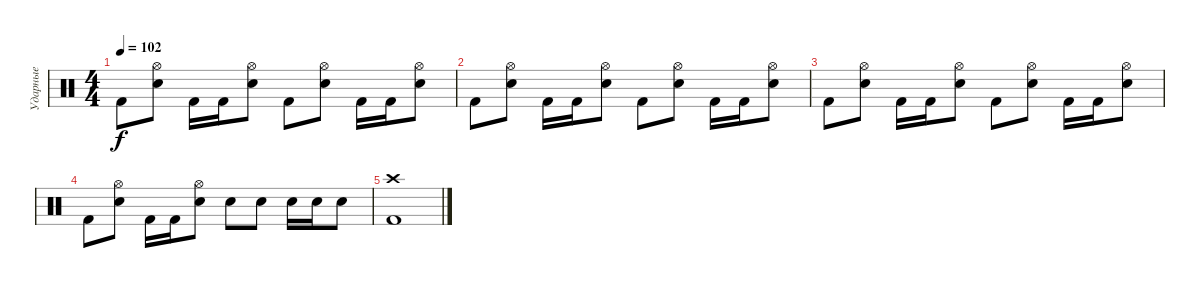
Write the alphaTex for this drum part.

\track ("Ударные" "Ударные") {instrument percussion}
\staff {score}
\articulation defaults
\ts (4 4)
\tempo 102
\clef neutral
\ks c "Kick (hit) 2".8{dy f}
("Electric Snare (hit)" "Hi-Hat (open)").8 "Kick (hit) 2".16 "Kick (hit) 2".16 ("Electric Snare (hit)" "Hi-Hat (open)").8 "Kick (hit) 2".8 ("Electric Snare (hit)" "Hi-Hat (open)").8 "Kick (hit) 2".16 "Kick (hit) 2".16 ("Electric Snare (hit)" "Hi-Hat (open)").8 |
"Kick (hit) 2".8 ("Electric Snare (hit)" "Hi-Hat (open)").8 "Kick (hit) 2".16 "Kick (hit) 2".16 ("Electric Snare (hit)" "Hi-Hat (open)").8 "Kick (hit) 2".8 ("Electric Snare (hit)" "Hi-Hat (open)").8 "Kick (hit) 2".16 "Kick (hit) 2".16 ("Electric Snare (hit)" "Hi-Hat (open)").8 |
"Kick (hit) 2".8 ("Electric Snare (hit)" "Hi-Hat (open)").8 "Kick (hit) 2".16 "Kick (hit) 2".16 ("Electric Snare (hit)" "Hi-Hat (open)").8 "Kick (hit) 2".8 ("Electric Snare (hit)" "Hi-Hat (open)").8 "Kick (hit) 2".16 "Kick (hit) 2".16 ("Electric Snare (hit)" "Hi-Hat (open)").8 |
"Kick (hit) 2".8 ("Electric Snare (hit)" "Hi-Hat (open)").8 "Kick (hit) 2".16 "Kick (hit) 2".16 ("Electric Snare (hit)" "Hi-Hat (open)").8 "Electric Snare (hit)".8 "Electric Snare (hit)".8 "Electric Snare (hit)".16 "Electric Snare (hit)".16 "Electric Snare (hit)".8 |
("Crash high (hit)" "Kick (hit) 2").1
